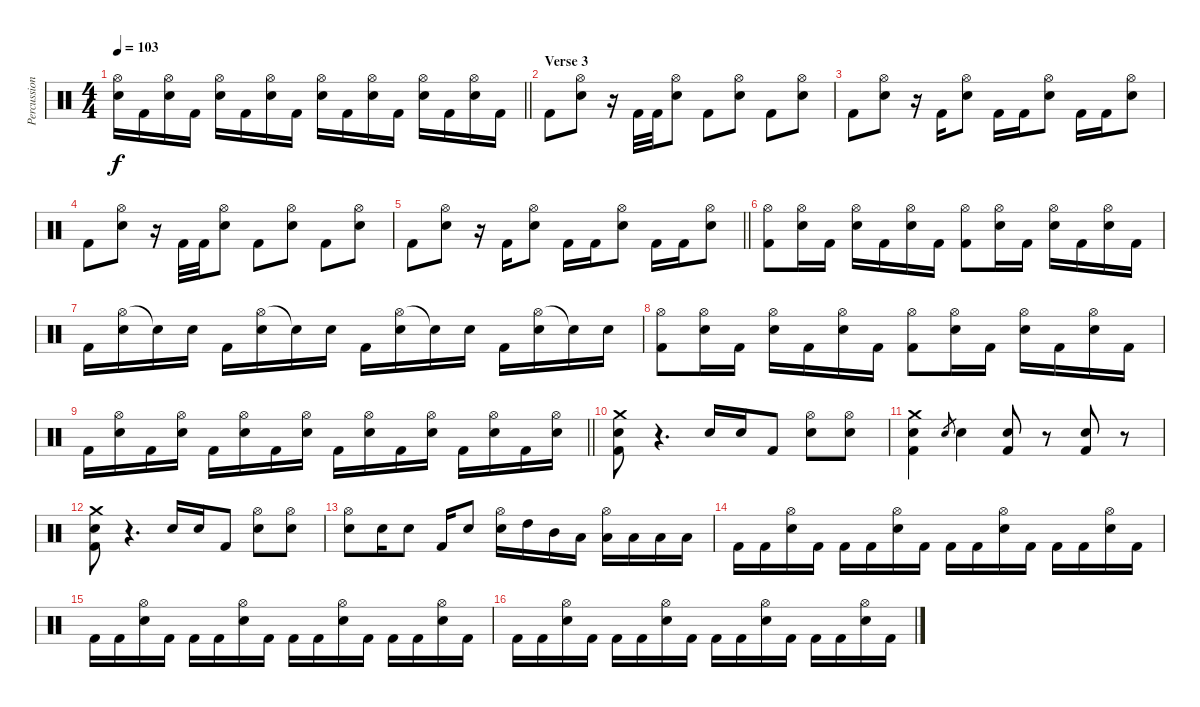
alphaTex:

\track ("Percussion" "Percussion") {instrument percussion}
\staff {score}
\articulation defaults
\ts (4 4)
\tempo 103
\clef neutral
\barLineRight lightlight
\ks aminor
("Hi-Hat (open)" "Electric Snare (hit)").16{dy f} "Kick (hit) 2".16 ("Hi-Hat (open)" "Electric Snare (hit)").16 "Kick (hit) 2".16 ("Hi-Hat (open)" "Electric Snare (hit)").16 "Kick (hit) 2".16 ("Hi-Hat (open)" "Electric Snare (hit)").16 "Kick (hit) 2".16 ("Hi-Hat (open)" "Electric Snare (hit)").16 "Kick (hit) 2".16 ("Hi-Hat (open)" "Electric Snare (hit)").16 "Kick (hit) 2".16 ("Hi-Hat (open)" "Electric Snare (hit)").16 "Kick (hit) 2".16 ("Hi-Hat (open)" "Electric Snare (hit)").16 "Kick (hit) 2".16 |
\section ("" "Verse 3")
"Kick (hit) 2".8 ("Hi-Hat (open)" "Electric Snare (hit)").8 r.16 "Kick (hit) 2".32 "Kick (hit) 2".32 ("Hi-Hat (open)" "Electric Snare (hit)").8 "Kick (hit) 2".8 ("Hi-Hat (open)" "Electric Snare (hit)").8 "Kick (hit) 2".8 ("Hi-Hat (open)" "Electric Snare (hit)").8 |
"Kick (hit) 2".8 ("Hi-Hat (open)" "Electric Snare (hit)").8 r.16 "Kick (hit) 2".16 ("Hi-Hat (open)" "Electric Snare (hit)").8 "Kick (hit) 2".16 "Kick (hit) 2".16 ("Hi-Hat (open)" "Electric Snare (hit)").8 "Kick (hit) 2".16 "Kick (hit) 2".16 ("Hi-Hat (open)" "Electric Snare (hit)").8 |
"Kick (hit) 2".8 ("Hi-Hat (open)" "Electric Snare (hit)").8 r.16 "Kick (hit) 2".32 "Kick (hit) 2".32 ("Hi-Hat (open)" "Electric Snare (hit)").8 "Kick (hit) 2".8 ("Hi-Hat (open)" "Electric Snare (hit)").8 "Kick (hit) 2".8 ("Hi-Hat (open)" "Electric Snare (hit)").8 |
\barLineRight lightlight "Kick (hit) 2".8
("Hi-Hat (open)" "Electric Snare (hit)").8 r.16 "Kick (hit) 2".16 ("Hi-Hat (open)" "Electric Snare (hit)").8 "Kick (hit) 2".16 "Kick (hit) 2".16 ("Hi-Hat (open)" "Electric Snare (hit)").8 "Kick (hit) 2".16 "Kick (hit) 2".16 ("Hi-Hat (open)" "Electric Snare (hit)").8 |
\section ("" "")
("Hi-Hat (open)" "Kick (hit) 2").8 ("Hi-Hat (open)" "Electric Snare (hit)").16 "Kick (hit) 2".16 ("Hi-Hat (open)" "Electric Snare (hit)").16 "Kick (hit) 2".16 ("Hi-Hat (open)" "Electric Snare (hit)").16 "Kick (hit) 2".16 ("Hi-Hat (open)" "Kick (hit) 2").8 ("Hi-Hat (open)" "Electric Snare (hit)").16 "Kick (hit) 2".16 ("Hi-Hat (open)" "Electric Snare (hit)").16 "Kick (hit) 2".16 ("Hi-Hat (open)" "Electric Snare (hit)").16 "Kick (hit) 2".16 |
"Kick (hit) 2".16 ("Hi-Hat (open)" "Electric Snare (hit)").16 "Snare (hit)"{t}.16 "Electric Snare (hit)".16 "Kick (hit) 2".16 ("Hi-Hat (open)" "Electric Snare (hit)").16 "Snare (hit)"{t}.16 "Electric Snare (hit)".16 "Kick (hit) 2".16 ("Hi-Hat (open)" "Electric Snare (hit)").16 "Snare (hit)"{t}.16 "Electric Snare (hit)".16 "Kick (hit) 2".16 ("Hi-Hat (open)" "Electric Snare (hit)").16 "Snare (hit)"{t}.16 "Electric Snare (hit)".16 |
("Hi-Hat (open)" "Kick (hit) 2").8 ("Hi-Hat (open)" "Electric Snare (hit)").16 "Kick (hit) 2".16 ("Hi-Hat (open)" "Electric Snare (hit)").16 "Kick (hit) 2".16 ("Hi-Hat (open)" "Electric Snare (hit)").16 "Kick (hit) 2".16 ("Hi-Hat (open)" "Kick (hit) 2").8 ("Hi-Hat (open)" "Electric Snare (hit)").16 "Kick (hit) 2".16 ("Hi-Hat (open)" "Electric Snare (hit)").16 "Kick (hit) 2".16 ("Hi-Hat (open)" "Electric Snare (hit)").16 "Kick (hit) 2".16 |
\barLineRight lightlight "Kick (hit) 2".16
("Hi-Hat (open)" "Electric Snare (hit)").16 "Kick (hit) 2".16 ("Hi-Hat (open)" "Electric Snare (hit)").16 "Kick (hit) 2".16 ("Hi-Hat (open)" "Electric Snare (hit)").16 "Kick (hit) 2".16 ("Hi-Hat (open)" "Electric Snare (hit)").16 "Kick (hit) 2".16 ("Hi-Hat (open)" "Electric Snare (hit)").16 "Kick (hit) 2".16 ("Hi-Hat (open)" "Electric Snare (hit)").16 "Kick (hit) 2".16 ("Hi-Hat (open)" "Electric Snare (hit)").16 "Kick (hit) 2".16 ("Hi-Hat (open)" "Electric Snare (hit)").16 |
\section ("" "")
("Crash medium (hit)" "Electric Snare (hit)" "Kick (hit) 2").8 r.4{d} "Electric Snare (hit)".16 "Electric Snare (hit)".16 "Kick (hit) 2".8 ("Hi-Hat (open)" "Electric Snare (hit)").8 ("Hi-Hat (open)" "Electric Snare (hit)").8 |
("Crash medium (hit)" "Electric Snare (hit)" "Kick (hit) 2").4 "Electric Snare (hit)".8{gr} "Electric Snare (hit)".4 ("Electric Snare (hit)" "Kick (hit) 2").8 r.8 ("Electric Snare (hit)" "Kick (hit) 2").8 r.8 |
("Crash medium (hit)" "Electric Snare (hit)" "Kick (hit) 2").8 r.4{d} "Electric Snare (hit)".16 "Electric Snare (hit)".16 "Kick (hit) 2".8 ("Hi-Hat (open)" "Electric Snare (hit)").8 ("Hi-Hat (open)" "Electric Snare (hit)").8 |
("Hi-Hat (open)" "Electric Snare (hit)").8 "Electric Snare (hit)".16 "Electric Snare (hit)".8 "Kick (hit) 2".16 "Electric Snare (hit)".8 ("Hi-Hat (open)" "Electric Snare (hit)").16 "High Tom (hit)".16 "Mid Tom (hit)".16 "Low Tom (hit)".16 ("Hi-Hat (open)" "Low Floor Tom (hit)").16 "Low Floor Tom (hit)".16 "Low Tom (hit)".16 "Low Tom (hit)".16 |
"Kick (hit) 2".16 "Kick (hit) 2".16 ("Hi-Hat (open)" "Electric Snare (hit)").16 "Kick (hit) 2".16 "Kick (hit) 2".16 "Kick (hit) 2".16 ("Hi-Hat (open)" "Electric Snare (hit)").16 "Kick (hit) 2".16 "Kick (hit) 2".16 "Kick (hit) 2".16 ("Hi-Hat (open)" "Electric Snare (hit)").16 "Kick (hit) 2".16 "Kick (hit) 2".16 "Kick (hit) 2".16 ("Hi-Hat (open)" "Electric Snare (hit)").16 "Kick (hit) 2".16 |
"Kick (hit) 2".16 "Kick (hit) 2".16 ("Hi-Hat (open)" "Electric Snare (hit)").16 "Kick (hit) 2".16 "Kick (hit) 2".16 "Kick (hit) 2".16 ("Hi-Hat (open)" "Electric Snare (hit)").16 "Kick (hit) 2".16 "Kick (hit) 2".16 "Kick (hit) 2".16 ("Hi-Hat (open)" "Electric Snare (hit)").16 "Kick (hit) 2".16 "Kick (hit) 2".16 "Kick (hit) 2".16 ("Hi-Hat (open)" "Electric Snare (hit)").16 "Kick (hit) 2".16 |
"Kick (hit) 2".16 "Kick (hit) 2".16 ("Hi-Hat (open)" "Electric Snare (hit)").16 "Kick (hit) 2".16 "Kick (hit) 2".16 "Kick (hit) 2".16 ("Hi-Hat (open)" "Electric Snare (hit)").16 "Kick (hit) 2".16 "Kick (hit) 2".16 "Kick (hit) 2".16 ("Hi-Hat (open)" "Electric Snare (hit)").16 "Kick (hit) 2".16 "Kick (hit) 2".16 "Kick (hit) 2".16 ("Hi-Hat (open)" "Electric Snare (hit)").16 "Kick (hit) 2".16
